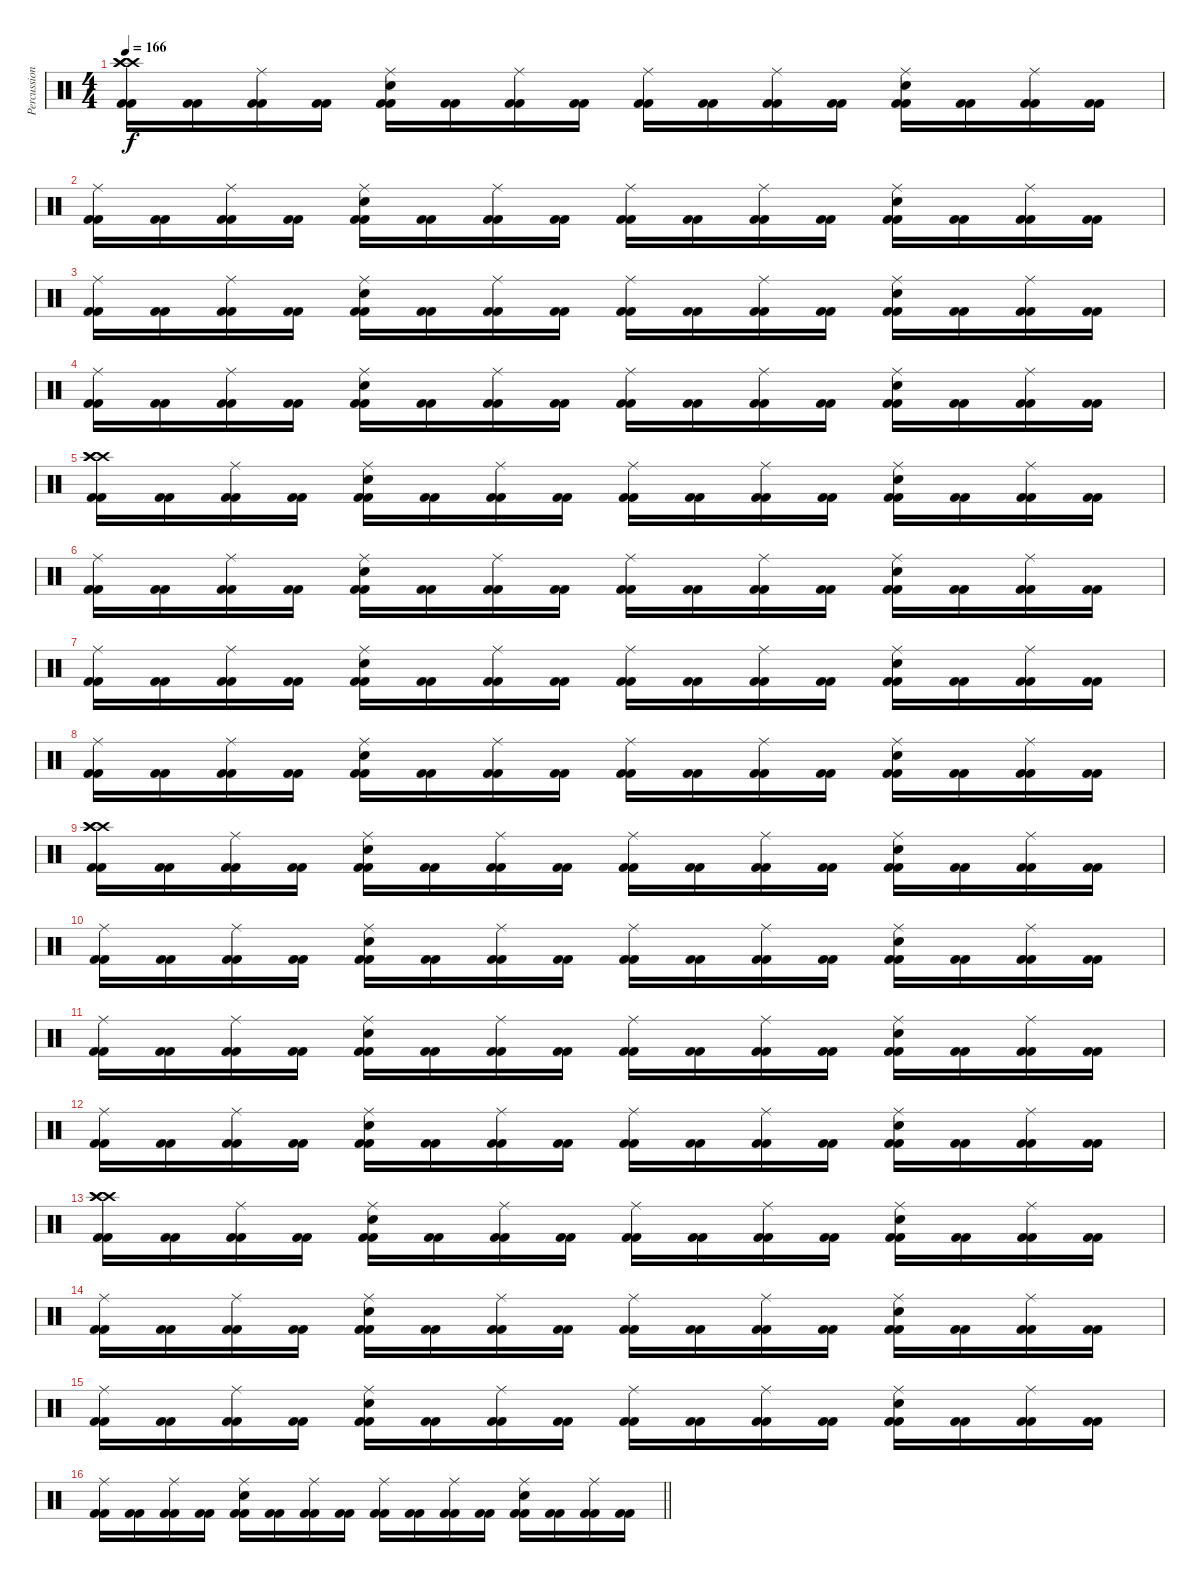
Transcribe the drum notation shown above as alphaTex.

\track ("Percussion" "Percussion") {instrument percussion}
\staff {score}
\articulation defaults
\ts (4 4)
\tempo 166
\clef neutral
\ks c
("Crash high (hit)" "Crash high (hit)" "Crash high (hit)" "Kick (hit) 2" "Kick (hit) 2").16{dy f} ("Kick (hit) 2" "Kick (hit) 2").16 ("Ride (middle)" "Kick (hit) 2" "Kick (hit) 2").16 ("Kick (hit) 2" "Kick (hit) 2").16 ("Ride (middle)" "Electric Snare (hit)" "Kick (hit) 2" "Kick (hit) 2").16 ("Kick (hit) 2" "Kick (hit) 2").16 ("Ride (middle)" "Kick (hit) 2" "Kick (hit) 2").16 ("Kick (hit) 2" "Kick (hit) 2").16 ("Ride (middle)" "Kick (hit) 2" "Kick (hit) 2").16 ("Kick (hit) 2" "Kick (hit) 2").16 ("Ride (middle)" "Kick (hit) 2" "Kick (hit) 2").16 ("Kick (hit) 2" "Kick (hit) 2").16 ("Ride (middle)" "Electric Snare (hit)" "Kick (hit) 2" "Kick (hit) 2").16 ("Kick (hit) 2" "Kick (hit) 2").16 ("Ride (middle)" "Kick (hit) 2" "Kick (hit) 2").16 ("Kick (hit) 2" "Kick (hit) 2").16 |
("Ride (middle)" "Kick (hit) 2" "Kick (hit) 2").16 ("Kick (hit) 2" "Kick (hit) 2").16 ("Ride (middle)" "Kick (hit) 2" "Kick (hit) 2").16 ("Kick (hit) 2" "Kick (hit) 2").16 ("Ride (middle)" "Electric Snare (hit)" "Kick (hit) 2" "Kick (hit) 2").16 ("Kick (hit) 2" "Kick (hit) 2").16 ("Ride (middle)" "Kick (hit) 2" "Kick (hit) 2").16 ("Kick (hit) 2" "Kick (hit) 2").16 ("Ride (middle)" "Kick (hit) 2" "Kick (hit) 2").16 ("Kick (hit) 2" "Kick (hit) 2").16 ("Ride (middle)" "Kick (hit) 2" "Kick (hit) 2").16 ("Kick (hit) 2" "Kick (hit) 2").16 ("Ride (middle)" "Electric Snare (hit)" "Kick (hit) 2" "Kick (hit) 2").16 ("Kick (hit) 2" "Kick (hit) 2").16 ("Ride (middle)" "Kick (hit) 2" "Kick (hit) 2").16 ("Kick (hit) 2" "Kick (hit) 2").16 |
("Ride (middle)" "Kick (hit) 2" "Kick (hit) 2").16 ("Kick (hit) 2" "Kick (hit) 2").16 ("Ride (middle)" "Kick (hit) 2" "Kick (hit) 2").16 ("Kick (hit) 2" "Kick (hit) 2").16 ("Ride (middle)" "Electric Snare (hit)" "Kick (hit) 2" "Kick (hit) 2").16 ("Kick (hit) 2" "Kick (hit) 2").16 ("Ride (middle)" "Kick (hit) 2" "Kick (hit) 2").16 ("Kick (hit) 2" "Kick (hit) 2").16 ("Ride (middle)" "Kick (hit) 2" "Kick (hit) 2").16 ("Kick (hit) 2" "Kick (hit) 2").16 ("Ride (middle)" "Kick (hit) 2" "Kick (hit) 2").16 ("Kick (hit) 2" "Kick (hit) 2").16 ("Ride (middle)" "Electric Snare (hit)" "Kick (hit) 2" "Kick (hit) 2").16 ("Kick (hit) 2" "Kick (hit) 2").16 ("Ride (middle)" "Kick (hit) 2" "Kick (hit) 2").16 ("Kick (hit) 2" "Kick (hit) 2").16 |
("Ride (middle)" "Kick (hit) 2" "Kick (hit) 2").16 ("Kick (hit) 2" "Kick (hit) 2").16 ("Ride (middle)" "Kick (hit) 2" "Kick (hit) 2").16 ("Kick (hit) 2" "Kick (hit) 2").16 ("Ride (middle)" "Electric Snare (hit)" "Kick (hit) 2" "Kick (hit) 2").16 ("Kick (hit) 2" "Kick (hit) 2").16 ("Ride (middle)" "Kick (hit) 2" "Kick (hit) 2").16 ("Kick (hit) 2" "Kick (hit) 2").16 ("Ride (middle)" "Kick (hit) 2" "Kick (hit) 2").16 ("Kick (hit) 2" "Kick (hit) 2").16 ("Ride (middle)" "Kick (hit) 2" "Kick (hit) 2").16 ("Kick (hit) 2" "Kick (hit) 2").16 ("Ride (middle)" "Electric Snare (hit)" "Kick (hit) 2" "Kick (hit) 2").16 ("Kick (hit) 2" "Kick (hit) 2").16 ("Ride (middle)" "Kick (hit) 2" "Kick (hit) 2").16 ("Kick (hit) 2" "Kick (hit) 2").16 |
("Crash high (hit)" "Crash high (hit)" "Crash high (hit)" "Kick (hit) 2" "Kick (hit) 2").16 ("Kick (hit) 2" "Kick (hit) 2").16 ("Ride (middle)" "Kick (hit) 2" "Kick (hit) 2").16 ("Kick (hit) 2" "Kick (hit) 2").16 ("Ride (middle)" "Electric Snare (hit)" "Kick (hit) 2" "Kick (hit) 2").16 ("Kick (hit) 2" "Kick (hit) 2").16 ("Ride (middle)" "Kick (hit) 2" "Kick (hit) 2").16 ("Kick (hit) 2" "Kick (hit) 2").16 ("Ride (middle)" "Kick (hit) 2" "Kick (hit) 2").16 ("Kick (hit) 2" "Kick (hit) 2").16 ("Ride (middle)" "Kick (hit) 2" "Kick (hit) 2").16 ("Kick (hit) 2" "Kick (hit) 2").16 ("Ride (middle)" "Electric Snare (hit)" "Kick (hit) 2" "Kick (hit) 2").16 ("Kick (hit) 2" "Kick (hit) 2").16 ("Ride (middle)" "Kick (hit) 2" "Kick (hit) 2").16 ("Kick (hit) 2" "Kick (hit) 2").16 |
("Ride (middle)" "Kick (hit) 2" "Kick (hit) 2").16 ("Kick (hit) 2" "Kick (hit) 2").16 ("Ride (middle)" "Kick (hit) 2" "Kick (hit) 2").16 ("Kick (hit) 2" "Kick (hit) 2").16 ("Ride (middle)" "Electric Snare (hit)" "Kick (hit) 2" "Kick (hit) 2").16 ("Kick (hit) 2" "Kick (hit) 2").16 ("Ride (middle)" "Kick (hit) 2" "Kick (hit) 2").16 ("Kick (hit) 2" "Kick (hit) 2").16 ("Ride (middle)" "Kick (hit) 2" "Kick (hit) 2").16 ("Kick (hit) 2" "Kick (hit) 2").16 ("Ride (middle)" "Kick (hit) 2" "Kick (hit) 2").16 ("Kick (hit) 2" "Kick (hit) 2").16 ("Ride (middle)" "Electric Snare (hit)" "Kick (hit) 2" "Kick (hit) 2").16 ("Kick (hit) 2" "Kick (hit) 2").16 ("Ride (middle)" "Kick (hit) 2" "Kick (hit) 2").16 ("Kick (hit) 2" "Kick (hit) 2").16 |
("Ride (middle)" "Kick (hit) 2" "Kick (hit) 2").16 ("Kick (hit) 2" "Kick (hit) 2").16 ("Ride (middle)" "Kick (hit) 2" "Kick (hit) 2").16 ("Kick (hit) 2" "Kick (hit) 2").16 ("Ride (middle)" "Electric Snare (hit)" "Kick (hit) 2" "Kick (hit) 2").16 ("Kick (hit) 2" "Kick (hit) 2").16 ("Ride (middle)" "Kick (hit) 2" "Kick (hit) 2").16 ("Kick (hit) 2" "Kick (hit) 2").16 ("Ride (middle)" "Kick (hit) 2" "Kick (hit) 2").16 ("Kick (hit) 2" "Kick (hit) 2").16 ("Ride (middle)" "Kick (hit) 2" "Kick (hit) 2").16 ("Kick (hit) 2" "Kick (hit) 2").16 ("Ride (middle)" "Electric Snare (hit)" "Kick (hit) 2" "Kick (hit) 2").16 ("Kick (hit) 2" "Kick (hit) 2").16 ("Ride (middle)" "Kick (hit) 2" "Kick (hit) 2").16 ("Kick (hit) 2" "Kick (hit) 2").16 |
("Ride (middle)" "Kick (hit) 2" "Kick (hit) 2").16 ("Kick (hit) 2" "Kick (hit) 2").16 ("Ride (middle)" "Kick (hit) 2" "Kick (hit) 2").16 ("Kick (hit) 2" "Kick (hit) 2").16 ("Ride (middle)" "Electric Snare (hit)" "Kick (hit) 2" "Kick (hit) 2").16 ("Kick (hit) 2" "Kick (hit) 2").16 ("Ride (middle)" "Kick (hit) 2" "Kick (hit) 2").16 ("Kick (hit) 2" "Kick (hit) 2").16 ("Ride (middle)" "Kick (hit) 2" "Kick (hit) 2").16 ("Kick (hit) 2" "Kick (hit) 2").16 ("Ride (middle)" "Kick (hit) 2" "Kick (hit) 2").16 ("Kick (hit) 2" "Kick (hit) 2").16 ("Ride (middle)" "Electric Snare (hit)" "Kick (hit) 2" "Kick (hit) 2").16 ("Kick (hit) 2" "Kick (hit) 2").16 ("Ride (middle)" "Kick (hit) 2" "Kick (hit) 2").16 ("Kick (hit) 2" "Kick (hit) 2").16 |
("Crash high (hit)" "Crash high (hit)" "Crash high (hit)" "Kick (hit) 2" "Kick (hit) 2").16 ("Kick (hit) 2" "Kick (hit) 2").16 ("Ride (middle)" "Kick (hit) 2" "Kick (hit) 2").16 ("Kick (hit) 2" "Kick (hit) 2").16 ("Ride (middle)" "Electric Snare (hit)" "Kick (hit) 2" "Kick (hit) 2").16 ("Kick (hit) 2" "Kick (hit) 2").16 ("Ride (middle)" "Kick (hit) 2" "Kick (hit) 2").16 ("Kick (hit) 2" "Kick (hit) 2").16 ("Ride (middle)" "Kick (hit) 2" "Kick (hit) 2").16 ("Kick (hit) 2" "Kick (hit) 2").16 ("Ride (middle)" "Kick (hit) 2" "Kick (hit) 2").16 ("Kick (hit) 2" "Kick (hit) 2").16 ("Ride (middle)" "Electric Snare (hit)" "Kick (hit) 2" "Kick (hit) 2").16 ("Kick (hit) 2" "Kick (hit) 2").16 ("Ride (middle)" "Kick (hit) 2" "Kick (hit) 2").16 ("Kick (hit) 2" "Kick (hit) 2").16 |
("Ride (middle)" "Kick (hit) 2" "Kick (hit) 2").16 ("Kick (hit) 2" "Kick (hit) 2").16 ("Ride (middle)" "Kick (hit) 2" "Kick (hit) 2").16 ("Kick (hit) 2" "Kick (hit) 2").16 ("Ride (middle)" "Electric Snare (hit)" "Kick (hit) 2" "Kick (hit) 2").16 ("Kick (hit) 2" "Kick (hit) 2").16 ("Ride (middle)" "Kick (hit) 2" "Kick (hit) 2").16 ("Kick (hit) 2" "Kick (hit) 2").16 ("Ride (middle)" "Kick (hit) 2" "Kick (hit) 2").16 ("Kick (hit) 2" "Kick (hit) 2").16 ("Ride (middle)" "Kick (hit) 2" "Kick (hit) 2").16 ("Kick (hit) 2" "Kick (hit) 2").16 ("Ride (middle)" "Electric Snare (hit)" "Kick (hit) 2" "Kick (hit) 2").16 ("Kick (hit) 2" "Kick (hit) 2").16 ("Ride (middle)" "Kick (hit) 2" "Kick (hit) 2").16 ("Kick (hit) 2" "Kick (hit) 2").16 |
("Ride (middle)" "Kick (hit) 2" "Kick (hit) 2").16 ("Kick (hit) 2" "Kick (hit) 2").16 ("Ride (middle)" "Kick (hit) 2" "Kick (hit) 2").16 ("Kick (hit) 2" "Kick (hit) 2").16 ("Ride (middle)" "Electric Snare (hit)" "Kick (hit) 2" "Kick (hit) 2").16 ("Kick (hit) 2" "Kick (hit) 2").16 ("Ride (middle)" "Kick (hit) 2" "Kick (hit) 2").16 ("Kick (hit) 2" "Kick (hit) 2").16 ("Ride (middle)" "Kick (hit) 2" "Kick (hit) 2").16 ("Kick (hit) 2" "Kick (hit) 2").16 ("Ride (middle)" "Kick (hit) 2" "Kick (hit) 2").16 ("Kick (hit) 2" "Kick (hit) 2").16 ("Ride (middle)" "Electric Snare (hit)" "Kick (hit) 2" "Kick (hit) 2").16 ("Kick (hit) 2" "Kick (hit) 2").16 ("Ride (middle)" "Kick (hit) 2" "Kick (hit) 2").16 ("Kick (hit) 2" "Kick (hit) 2").16 |
("Ride (middle)" "Kick (hit) 2" "Kick (hit) 2").16 ("Kick (hit) 2" "Kick (hit) 2").16 ("Ride (middle)" "Kick (hit) 2" "Kick (hit) 2").16 ("Kick (hit) 2" "Kick (hit) 2").16 ("Ride (middle)" "Electric Snare (hit)" "Kick (hit) 2" "Kick (hit) 2").16 ("Kick (hit) 2" "Kick (hit) 2").16 ("Ride (middle)" "Kick (hit) 2" "Kick (hit) 2").16 ("Kick (hit) 2" "Kick (hit) 2").16 ("Ride (middle)" "Kick (hit) 2" "Kick (hit) 2").16 ("Kick (hit) 2" "Kick (hit) 2").16 ("Ride (middle)" "Kick (hit) 2" "Kick (hit) 2").16 ("Kick (hit) 2" "Kick (hit) 2").16 ("Ride (middle)" "Electric Snare (hit)" "Kick (hit) 2" "Kick (hit) 2").16 ("Kick (hit) 2" "Kick (hit) 2").16 ("Ride (middle)" "Kick (hit) 2" "Kick (hit) 2").16 ("Kick (hit) 2" "Kick (hit) 2").16 |
("Crash high (hit)" "Crash high (hit)" "Crash high (hit)" "Kick (hit) 2" "Kick (hit) 2").16 ("Kick (hit) 2" "Kick (hit) 2").16 ("Ride (middle)" "Kick (hit) 2" "Kick (hit) 2").16 ("Kick (hit) 2" "Kick (hit) 2").16 ("Ride (middle)" "Electric Snare (hit)" "Kick (hit) 2" "Kick (hit) 2").16 ("Kick (hit) 2" "Kick (hit) 2").16 ("Ride (middle)" "Kick (hit) 2" "Kick (hit) 2").16 ("Kick (hit) 2" "Kick (hit) 2").16 ("Ride (middle)" "Kick (hit) 2" "Kick (hit) 2").16 ("Kick (hit) 2" "Kick (hit) 2").16 ("Ride (middle)" "Kick (hit) 2" "Kick (hit) 2").16 ("Kick (hit) 2" "Kick (hit) 2").16 ("Ride (middle)" "Electric Snare (hit)" "Kick (hit) 2" "Kick (hit) 2").16 ("Kick (hit) 2" "Kick (hit) 2").16 ("Ride (middle)" "Kick (hit) 2" "Kick (hit) 2").16 ("Kick (hit) 2" "Kick (hit) 2").16 |
("Ride (middle)" "Kick (hit) 2" "Kick (hit) 2").16 ("Kick (hit) 2" "Kick (hit) 2").16 ("Ride (middle)" "Kick (hit) 2" "Kick (hit) 2").16 ("Kick (hit) 2" "Kick (hit) 2").16 ("Ride (middle)" "Electric Snare (hit)" "Kick (hit) 2" "Kick (hit) 2").16 ("Kick (hit) 2" "Kick (hit) 2").16 ("Ride (middle)" "Kick (hit) 2" "Kick (hit) 2").16 ("Kick (hit) 2" "Kick (hit) 2").16 ("Ride (middle)" "Kick (hit) 2" "Kick (hit) 2").16 ("Kick (hit) 2" "Kick (hit) 2").16 ("Ride (middle)" "Kick (hit) 2" "Kick (hit) 2").16 ("Kick (hit) 2" "Kick (hit) 2").16 ("Ride (middle)" "Electric Snare (hit)" "Kick (hit) 2" "Kick (hit) 2").16 ("Kick (hit) 2" "Kick (hit) 2").16 ("Ride (middle)" "Kick (hit) 2" "Kick (hit) 2").16 ("Kick (hit) 2" "Kick (hit) 2").16 |
("Ride (middle)" "Kick (hit) 2" "Kick (hit) 2").16 ("Kick (hit) 2" "Kick (hit) 2").16 ("Ride (middle)" "Kick (hit) 2" "Kick (hit) 2").16 ("Kick (hit) 2" "Kick (hit) 2").16 ("Ride (middle)" "Electric Snare (hit)" "Kick (hit) 2" "Kick (hit) 2").16 ("Kick (hit) 2" "Kick (hit) 2").16 ("Ride (middle)" "Kick (hit) 2" "Kick (hit) 2").16 ("Kick (hit) 2" "Kick (hit) 2").16 ("Ride (middle)" "Kick (hit) 2" "Kick (hit) 2").16 ("Kick (hit) 2" "Kick (hit) 2").16 ("Ride (middle)" "Kick (hit) 2" "Kick (hit) 2").16 ("Kick (hit) 2" "Kick (hit) 2").16 ("Ride (middle)" "Electric Snare (hit)" "Kick (hit) 2" "Kick (hit) 2").16 ("Kick (hit) 2" "Kick (hit) 2").16 ("Ride (middle)" "Kick (hit) 2" "Kick (hit) 2").16 ("Kick (hit) 2" "Kick (hit) 2").16 |
\barLineRight lightlight
("Ride (middle)" "Kick (hit) 2" "Kick (hit) 2").16 ("Kick (hit) 2" "Kick (hit) 2").16 ("Ride (middle)" "Kick (hit) 2" "Kick (hit) 2").16 ("Kick (hit) 2" "Kick (hit) 2").16 ("Ride (middle)" "Electric Snare (hit)" "Kick (hit) 2" "Kick (hit) 2").16 ("Kick (hit) 2" "Kick (hit) 2").16 ("Ride (middle)" "Kick (hit) 2" "Kick (hit) 2").16 ("Kick (hit) 2" "Kick (hit) 2").16 ("Ride (middle)" "Kick (hit) 2" "Kick (hit) 2").16 ("Kick (hit) 2" "Kick (hit) 2").16 ("Ride (middle)" "Kick (hit) 2" "Kick (hit) 2").16 ("Kick (hit) 2" "Kick (hit) 2").16 ("Ride (middle)" "Electric Snare (hit)" "Kick (hit) 2" "Kick (hit) 2").16 ("Kick (hit) 2" "Kick (hit) 2").16 ("Ride (middle)" "Kick (hit) 2" "Kick (hit) 2").16 ("Kick (hit) 2" "Kick (hit) 2").16
